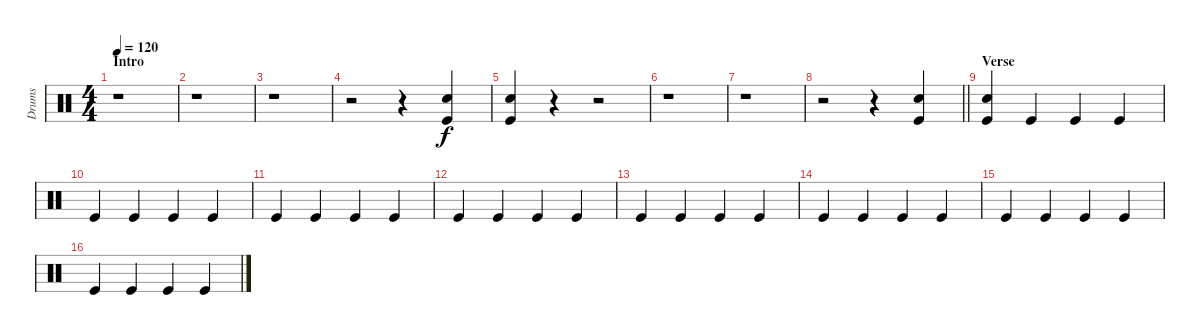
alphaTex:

\track ("Drums" "Drums") {instrument percussion}
\staff {score}
\articulation defaults
\ts (4 4)
\section ("" "Intro")
\tempo 120
\clef neutral
\ks c
r.1{dy f} |
r.1 |
r.1 |
r.2 r.4 ("Snare (hit) 2" "Kick (hit)").4 |
("Snare (hit) 2" "Kick (hit)").4 r.4 r.2 |
r.1 |
r.1 |
\barLineRight lightlight
r.2 r.4 ("Snare (hit) 2" "Kick (hit)").4 |
\section ("" "Verse")
("Snare (hit) 2" "Kick (hit)").4 "Kick (hit)".4 "Kick (hit)".4 "Kick (hit)".4 |
"Kick (hit)".4 "Kick (hit)".4 "Kick (hit)".4 "Kick (hit)".4 |
"Kick (hit)".4 "Kick (hit)".4 "Kick (hit)".4 "Kick (hit)".4 |
"Kick (hit)".4 "Kick (hit)".4 "Kick (hit)".4 "Kick (hit)".4 |
"Kick (hit)".4 "Kick (hit)".4 "Kick (hit)".4 "Kick (hit)".4 |
"Kick (hit)".4 "Kick (hit)".4 "Kick (hit)".4 "Kick (hit)".4 |
"Kick (hit)".4 "Kick (hit)".4 "Kick (hit)".4 "Kick (hit)".4 |
"Kick (hit)".4 "Kick (hit)".4 "Kick (hit)".4 "Kick (hit)".4
